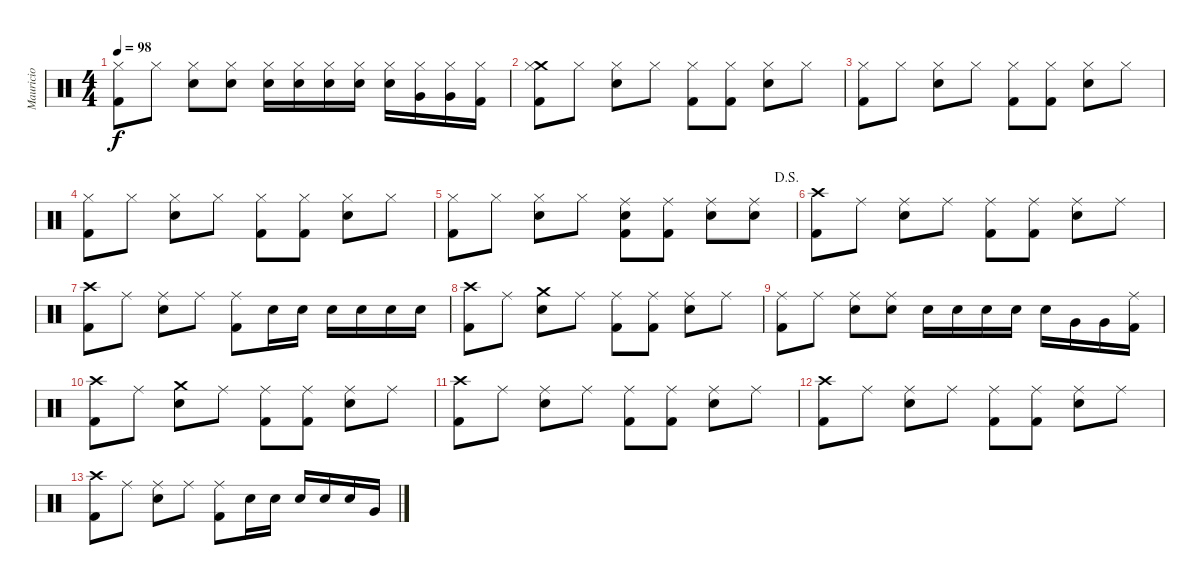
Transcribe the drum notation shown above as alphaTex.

\track ("Mauricio" "Mauricio") {instrument percussion}
\staff {score}
\articulation defaults
\ts (4 4)
\tempo 98
\clef neutral
\ks c
("Hi-Hat (closed)" "Kick (hit) 2").8{dy f} "Hi-Hat (closed)".8 ("Hi-Hat (closed)" "Snare (hit) 2").8 ("Hi-Hat (closed)" "Snare (hit) 2").8 ("Hi-Hat (closed)" "Snare (hit) 2").16 ("Hi-Hat (closed)" "Snare (hit) 2").16 ("Hi-Hat (closed)" "Snare (hit) 2").16 ("Hi-Hat (closed)" "Snare (hit) 2").16 ("Hi-Hat (closed)" "Snare (hit) 2").16 ("Hi-Hat (closed)" "Very Low Tom (hit)").16 ("Hi-Hat (closed)" "Very Low Tom (hit)").16 ("Hi-Hat (closed)" "Kick (hit) 2").16 |
("Crash medium (hit)" "Hi-Hat (closed)" "Kick (hit) 2").8 "Hi-Hat (closed)".8 ("Hi-Hat (closed)" "Snare (hit) 2").8 "Hi-Hat (closed)".8 ("Hi-Hat (closed)" "Kick (hit) 2").8 ("Hi-Hat (closed)" "Kick (hit) 2").8 ("Hi-Hat (closed)" "Snare (hit) 2").8 "Hi-Hat (closed)".8 |
("Hi-Hat (closed)" "Kick (hit) 2").8 "Hi-Hat (closed)".8 ("Hi-Hat (closed)" "Snare (hit) 2").8 "Hi-Hat (closed)".8 ("Hi-Hat (closed)" "Kick (hit) 2").8 ("Hi-Hat (closed)" "Kick (hit) 2").8 ("Hi-Hat (closed)" "Snare (hit) 2").8 "Hi-Hat (closed)".8 |
("Hi-Hat (closed)" "Kick (hit) 2").8 "Hi-Hat (closed)".8 ("Hi-Hat (closed)" "Snare (hit) 2").8 "Hi-Hat (closed)".8 ("Hi-Hat (closed)" "Kick (hit) 2").8 ("Hi-Hat (closed)" "Kick (hit) 2").8 ("Hi-Hat (closed)" "Snare (hit) 2").8 "Hi-Hat (closed)".8 |
\jump dalsegno
("Hi-Hat (closed)" "Kick (hit) 2").8 "Hi-Hat (closed)".8 ("Hi-Hat (closed)" "Snare (hit) 2").8 "Hi-Hat (closed)".8 ("Ride (middle)" "Snare (hit) 2" "Kick (hit) 2").8 ("Ride (middle)" "Kick (hit) 2").8 ("Ride (middle)" "Snare (hit) 2").8 ("Ride (middle)" "Snare (hit) 2").8 |
("Crash high (hit)" "Kick (hit) 2").8 "Ride (middle)".8 ("Ride (middle)" "Snare (hit) 2").8 "Ride (middle)".8 ("Ride (middle)" "Kick (hit) 2").8 ("Ride (middle)" "Kick (hit) 2").8 ("Ride (middle)" "Snare (hit) 2").8 "Ride (middle)".8 |
("Crash high (hit)" "Kick (hit) 2").8 "Ride (middle)".8 ("Ride (middle)" "Snare (hit) 2").8 "Ride (middle)".8 ("Ride (middle)" "Kick (hit) 2").8 "Snare (hit) 2".16 "Snare (hit) 2".16 "Snare (hit) 2".16 "Snare (hit) 2".16 "Snare (hit) 2".16 "Snare (hit) 2".16 |
("Crash high (hit)" "Kick (hit) 2").8 "Ride (middle)".8 ("Crash medium (hit)" "Snare (hit) 2").8 "Ride (middle)".8 ("Ride (middle)" "Kick (hit) 2").8 ("Ride (middle)" "Kick (hit) 2").8 ("Ride (middle)" "Snare (hit) 2").8 "Ride (middle)".8 |
("Ride (middle)" "Kick (hit) 2").8 "Ride (middle)".8 ("Ride (middle)" "Snare (hit) 2").8 ("Ride (middle)" "Snare (hit) 2").8 "Snare (hit) 2".16 "Snare (hit) 2".16 "Snare (hit) 2".16 "Snare (hit) 2".16 "Snare (hit) 2".16 "Very Low Tom (hit)".16 "Very Low Tom (hit)".16 ("Ride (middle)" "Kick (hit) 2").16 |
("Crash high (hit)" "Kick (hit) 2").8 "Ride (middle)".8 ("Crash medium (hit)" "Snare (hit) 2").8 "Ride (middle)".8 ("Ride (middle)" "Kick (hit) 2").8 ("Ride (middle)" "Kick (hit) 2").8 ("Ride (middle)" "Snare (hit) 2").8 "Ride (middle)".8 |
("Crash high (hit)" "Kick (hit) 2").8 "Ride (middle)".8 ("Ride (middle)" "Snare (hit) 2").8 "Ride (middle)".8 ("Ride (middle)" "Kick (hit) 2").8 ("Ride (middle)" "Kick (hit) 2").8 ("Ride (middle)" "Snare (hit) 2").8 "Ride (middle)".8 |
("Crash high (hit)" "Kick (hit) 2").8 "Ride (middle)".8 ("Ride (middle)" "Snare (hit) 2").8 "Ride (middle)".8 ("Ride (middle)" "Kick (hit) 2").8 ("Ride (middle)" "Kick (hit) 2").8 ("Ride (middle)" "Snare (hit) 2").8 "Ride (middle)".8 |
("Crash high (hit)" "Kick (hit) 2").8 "Ride (middle)".8 ("Ride (middle)" "Snare (hit) 2").8 "Ride (middle)".8 ("Ride (middle)" "Kick (hit) 2").8 "Snare (hit) 2".16 "Snare (hit) 2".16 "Snare (hit) 2".16 "Snare (hit) 2".16 "Snare (hit) 2".16 "Very Low Tom (hit)".16
